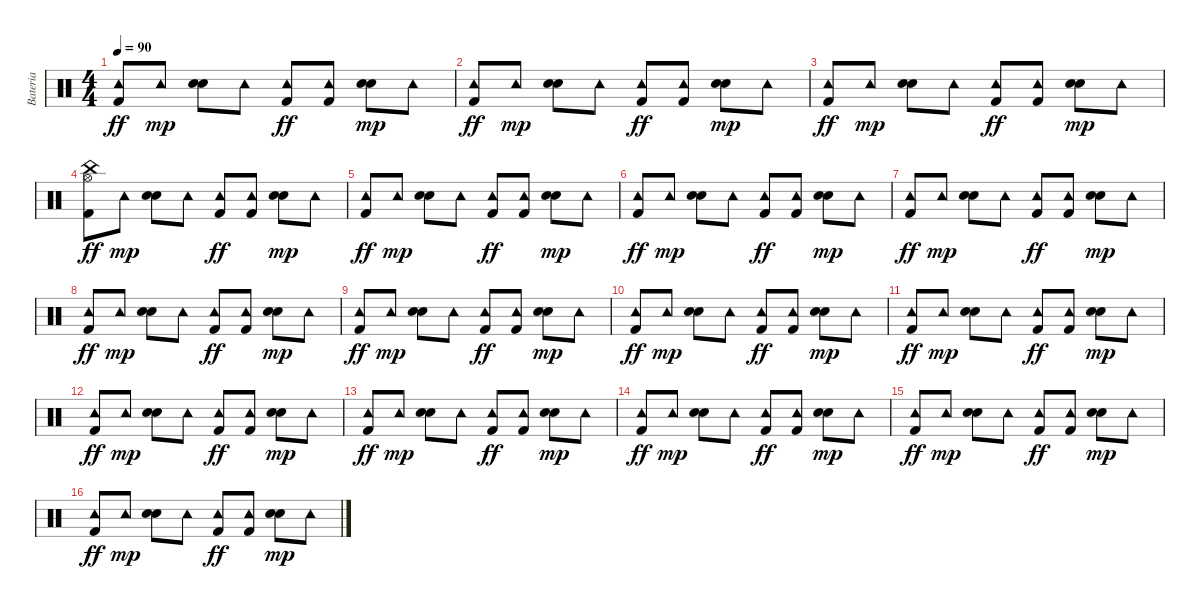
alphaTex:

\track ("Bateria" "Bateria") {instrument percussion}
\staff {score}
\articulation defaults
\ts (4 4)
\tempo 90
\clef neutral
\ks c
("Tambourine (hit)" "Kick (hit) 2").8{dy ff} "Tambourine (hit)".8{dy mp} ("Electric Snare (hit)" "Electric Snare (hit)").8 "Tambourine (hit)".8 ("Tambourine (hit)" "Kick (hit) 2").8{dy ff} ("Tambourine (hit)" "Kick (hit) 2").8 ("Electric Snare (hit)" "Electric Snare (hit)").8{dy mp} "Tambourine (hit)".8 |
("Tambourine (hit)" "Kick (hit) 2").8{dy ff} "Tambourine (hit)".8{dy mp} ("Electric Snare (hit)" "Electric Snare (hit)").8 "Tambourine (hit)".8 ("Tambourine (hit)" "Kick (hit) 2").8{dy ff} ("Tambourine (hit)" "Kick (hit) 2").8 ("Electric Snare (hit)" "Electric Snare (hit)").8{dy mp} "Tambourine (hit)".8 |
("Tambourine (hit)" "Kick (hit) 2").8{dy ff} "Tambourine (hit)".8{dy mp} ("Electric Snare (hit)" "Electric Snare (hit)").8 "Tambourine (hit)".8 ("Tambourine (hit)" "Kick (hit) 2").8{dy ff} ("Tambourine (hit)" "Kick (hit) 2").8 ("Electric Snare (hit)" "Electric Snare (hit)").8{dy mp} "Tambourine (hit)".8 |
("Hi-Hat (open)" "China (hit)" "Kick (hit) 2").8{dy ff} "Tambourine (hit)".8{dy mp} ("Electric Snare (hit)" "Electric Snare (hit)").8 "Tambourine (hit)".8 ("Tambourine (hit)" "Kick (hit) 2").8{dy ff} ("Tambourine (hit)" "Kick (hit) 2").8 ("Electric Snare (hit)" "Electric Snare (hit)").8{dy mp} "Tambourine (hit)".8 |
("Tambourine (hit)" "Kick (hit) 2").8{dy ff} "Tambourine (hit)".8{dy mp} ("Electric Snare (hit)" "Electric Snare (hit)").8 "Tambourine (hit)".8 ("Tambourine (hit)" "Kick (hit) 2").8{dy ff} ("Tambourine (hit)" "Kick (hit) 2").8 ("Electric Snare (hit)" "Electric Snare (hit)").8{dy mp} "Tambourine (hit)".8 |
("Tambourine (hit)" "Kick (hit) 2").8{dy ff} "Tambourine (hit)".8{dy mp} ("Electric Snare (hit)" "Electric Snare (hit)").8 "Tambourine (hit)".8 ("Tambourine (hit)" "Kick (hit) 2").8{dy ff} ("Tambourine (hit)" "Kick (hit) 2").8 ("Electric Snare (hit)" "Electric Snare (hit)").8{dy mp} "Tambourine (hit)".8 |
("Tambourine (hit)" "Kick (hit) 2").8{dy ff} "Tambourine (hit)".8{dy mp} ("Electric Snare (hit)" "Electric Snare (hit)").8 "Tambourine (hit)".8 ("Tambourine (hit)" "Kick (hit) 2").8{dy ff} ("Tambourine (hit)" "Kick (hit) 2").8 ("Electric Snare (hit)" "Electric Snare (hit)").8{dy mp} "Tambourine (hit)".8 |
("Tambourine (hit)" "Kick (hit) 2").8{dy ff} "Tambourine (hit)".8{dy mp} ("Electric Snare (hit)" "Electric Snare (hit)").8 "Tambourine (hit)".8 ("Tambourine (hit)" "Kick (hit) 2").8{dy ff} ("Tambourine (hit)" "Kick (hit) 2").8 ("Electric Snare (hit)" "Electric Snare (hit)").8{dy mp} "Tambourine (hit)".8 |
("Tambourine (hit)" "Kick (hit) 2").8{dy ff} "Tambourine (hit)".8{dy mp} ("Electric Snare (hit)" "Electric Snare (hit)").8 "Tambourine (hit)".8 ("Tambourine (hit)" "Kick (hit) 2").8{dy ff} ("Tambourine (hit)" "Kick (hit) 2").8 ("Electric Snare (hit)" "Electric Snare (hit)").8{dy mp} "Tambourine (hit)".8 |
("Tambourine (hit)" "Kick (hit) 2").8{dy ff} "Tambourine (hit)".8{dy mp} ("Electric Snare (hit)" "Electric Snare (hit)").8 "Tambourine (hit)".8 ("Tambourine (hit)" "Kick (hit) 2").8{dy ff} ("Tambourine (hit)" "Kick (hit) 2").8 ("Electric Snare (hit)" "Electric Snare (hit)").8{dy mp} "Tambourine (hit)".8 |
("Tambourine (hit)" "Kick (hit) 2").8{dy ff} "Tambourine (hit)".8{dy mp} ("Electric Snare (hit)" "Electric Snare (hit)").8 "Tambourine (hit)".8 ("Tambourine (hit)" "Kick (hit) 2").8{dy ff} ("Tambourine (hit)" "Kick (hit) 2").8 ("Electric Snare (hit)" "Electric Snare (hit)").8{dy mp} "Tambourine (hit)".8 |
("Tambourine (hit)" "Kick (hit) 2").8{dy ff} "Tambourine (hit)".8{dy mp} ("Electric Snare (hit)" "Electric Snare (hit)").8 "Tambourine (hit)".8 ("Tambourine (hit)" "Kick (hit) 2").8{dy ff} ("Tambourine (hit)" "Kick (hit) 2").8 ("Electric Snare (hit)" "Electric Snare (hit)").8{dy mp} "Tambourine (hit)".8 |
("Tambourine (hit)" "Kick (hit) 2").8{dy ff} "Tambourine (hit)".8{dy mp} ("Electric Snare (hit)" "Electric Snare (hit)").8 "Tambourine (hit)".8 ("Tambourine (hit)" "Kick (hit) 2").8{dy ff} ("Tambourine (hit)" "Kick (hit) 2").8 ("Electric Snare (hit)" "Electric Snare (hit)").8{dy mp} "Tambourine (hit)".8 |
("Tambourine (hit)" "Kick (hit) 2").8{dy ff} "Tambourine (hit)".8{dy mp} ("Electric Snare (hit)" "Electric Snare (hit)").8 "Tambourine (hit)".8 ("Tambourine (hit)" "Kick (hit) 2").8{dy ff} ("Tambourine (hit)" "Kick (hit) 2").8 ("Electric Snare (hit)" "Electric Snare (hit)").8{dy mp} "Tambourine (hit)".8 |
("Tambourine (hit)" "Kick (hit) 2").8{dy ff} "Tambourine (hit)".8{dy mp} ("Electric Snare (hit)" "Electric Snare (hit)").8 "Tambourine (hit)".8 ("Tambourine (hit)" "Kick (hit) 2").8{dy ff} ("Tambourine (hit)" "Kick (hit) 2").8 ("Electric Snare (hit)" "Electric Snare (hit)").8{dy mp} "Tambourine (hit)".8 |
("Tambourine (hit)" "Kick (hit) 2").8{dy ff} "Tambourine (hit)".8{dy mp} ("Electric Snare (hit)" "Electric Snare (hit)").8 "Tambourine (hit)".8 ("Tambourine (hit)" "Kick (hit) 2").8{dy ff} ("Tambourine (hit)" "Kick (hit) 2").8 ("Electric Snare (hit)" "Electric Snare (hit)").8{dy mp} "Tambourine (hit)".8
